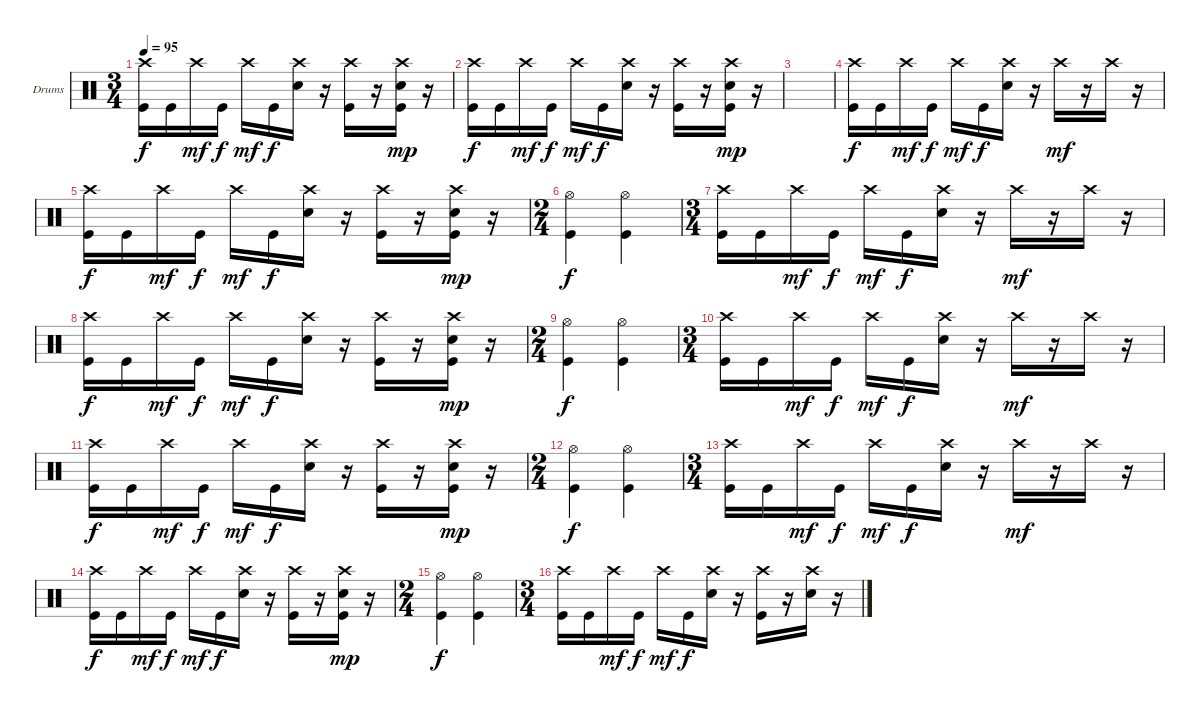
\defaultSystemsLayout 4
\bracketExtendMode groupsimilarinstruments
\firstSystemTrackNameOrientation horizontal
\otherSystemsTrackNameOrientation horizontal
\track ("Drumkit" "Drums") {instrument percussion}
\staff {score}
\articulation defaults
\ts (3 4)
\tempo 95
\clef neutral
\ks c
("Kick (hit)" "Crash high (hit)").16{dy f} "Kick (hit)".16 "Crash high (hit)".16{dy mf} "Kick (hit)".16{dy f} "Crash high (hit)".16{dy mf} "Kick (hit)".16{dy f} ("Snare (hit) 2" "Crash high (hit)").16 r.16 ("Kick (hit)" "Crash high (hit)").16 r.16 ("Kick (hit)" "Snare (hit) 2" "Crash high (hit)").16{dy mp} r.16 |
("Kick (hit)" "Crash high (hit)").16{dy f} "Kick (hit)".16 "Crash high (hit)".16{dy mf} "Kick (hit)".16{dy f} "Crash high (hit)".16{dy mf} "Kick (hit)".16{dy f} ("Snare (hit) 2" "Crash high (hit)").16 r.16 ("Kick (hit)" "Crash high (hit)").16 r.16 ("Kick (hit)" "Snare (hit) 2" "Crash high (hit)").16{dy mp} r.16 |
|
("Kick (hit)" "Crash high (hit)").16{dy f} "Kick (hit)".16 "Crash high (hit)".16{dy mf} "Kick (hit)".16{dy f} "Crash high (hit)".16{dy mf} "Kick (hit)".16{dy f} ("Snare (hit) 2" "Crash high (hit)").16 r.16 "Crash high (hit)".16{dy mf} r.16 "Crash high (hit)".16 r.16 |
("Kick (hit)" "Crash high (hit)").16{dy f} "Kick (hit)".16 "Crash high (hit)".16{dy mf} "Kick (hit)".16{dy f} "Crash high (hit)".16{dy mf} "Kick (hit)".16{dy f} ("Snare (hit) 2" "Crash high (hit)").16 r.16 ("Kick (hit)" "Crash high (hit)").16 r.16 ("Kick (hit)" "Snare (hit) 2" "Crash high (hit)").16{dy mp} r.16 |
\ts (2 4)
("Kick (hit)" "Hi-Hat (open)").4{dy f} ("Kick (hit)" "Hi-Hat (open)").4 |
\ts (3 4)
("Kick (hit)" "Crash high (hit)").16 "Kick (hit)".16 "Crash high (hit)".16{dy mf} "Kick (hit)".16{dy f} "Crash high (hit)".16{dy mf} "Kick (hit)".16{dy f} ("Snare (hit) 2" "Crash high (hit)").16 r.16 "Crash high (hit)".16{dy mf} r.16 "Crash high (hit)".16 r.16 |
("Kick (hit)" "Crash high (hit)").16{dy f} "Kick (hit)".16 "Crash high (hit)".16{dy mf} "Kick (hit)".16{dy f} "Crash high (hit)".16{dy mf} "Kick (hit)".16{dy f} ("Snare (hit) 2" "Crash high (hit)").16 r.16 ("Kick (hit)" "Crash high (hit)").16 r.16 ("Kick (hit)" "Snare (hit) 2" "Crash high (hit)").16{dy mp} r.16 |
\ts (2 4)
("Kick (hit)" "Hi-Hat (open)").4{dy f} ("Kick (hit)" "Hi-Hat (open)").4 |
\ts (3 4)
("Kick (hit)" "Crash high (hit)").16 "Kick (hit)".16 "Crash high (hit)".16{dy mf} "Kick (hit)".16{dy f} "Crash high (hit)".16{dy mf} "Kick (hit)".16{dy f} ("Snare (hit) 2" "Crash high (hit)").16 r.16 "Crash high (hit)".16{dy mf} r.16 "Crash high (hit)".16 r.16 |
("Kick (hit)" "Crash high (hit)").16{dy f} "Kick (hit)".16 "Crash high (hit)".16{dy mf} "Kick (hit)".16{dy f} "Crash high (hit)".16{dy mf} "Kick (hit)".16{dy f} ("Snare (hit) 2" "Crash high (hit)").16 r.16 ("Kick (hit)" "Crash high (hit)").16 r.16 ("Kick (hit)" "Snare (hit) 2" "Crash high (hit)").16{dy mp} r.16 |
\ts (2 4)
("Kick (hit)" "Hi-Hat (open)").4{dy f} ("Kick (hit)" "Hi-Hat (open)").4 |
\ts (3 4)
("Kick (hit)" "Crash high (hit)").16 "Kick (hit)".16 "Crash high (hit)".16{dy mf} "Kick (hit)".16{dy f} "Crash high (hit)".16{dy mf} "Kick (hit)".16{dy f} ("Snare (hit) 2" "Crash high (hit)").16 r.16 "Crash high (hit)".16{dy mf} r.16 "Crash high (hit)".16 r.16 |
("Kick (hit)" "Crash high (hit)").16{dy f} "Kick (hit)".16 "Crash high (hit)".16{dy mf} "Kick (hit)".16{dy f} "Crash high (hit)".16{dy mf} "Kick (hit)".16{dy f} ("Snare (hit) 2" "Crash high (hit)").16 r.16 ("Kick (hit)" "Crash high (hit)").16 r.16 ("Kick (hit)" "Snare (hit) 2" "Crash high (hit)").16{dy mp} r.16 |
\ts (2 4)
("Kick (hit)" "Hi-Hat (open)").4{dy f} ("Kick (hit)" "Hi-Hat (open)").4 |
\ts (3 4)
("Kick (hit)" "Crash high (hit)").16 "Kick (hit)".16 "Crash high (hit)".16{dy mf} "Kick (hit)".16{dy f} "Crash high (hit)".16{dy mf} "Kick (hit)".16{dy f} ("Snare (hit) 2" "Crash high (hit)").16 r.16 ("Kick (hit)" "Crash high (hit)").16 r.16 ("Snare (hit) 2" "Crash high (hit)").16 r.16
